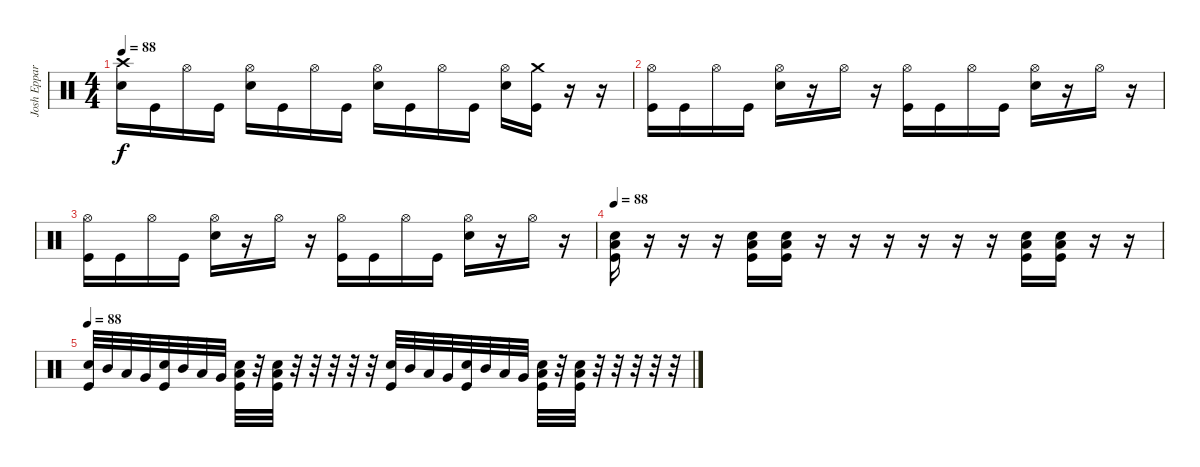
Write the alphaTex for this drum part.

\track ("Josh Eppard (Drums)" "Josh Eppar") {instrument percussion}
\staff {score}
\articulation defaults
\ts (4 4)
\tempo 88
\clef neutral
\ks c
("Crash high (hit)" "Electric Snare (hit)").16{dy f} "Kick (hit)".16 "Hi-Hat (open)".16 "Kick (hit)".16 ("Hi-Hat (open)" "Electric Snare (hit)").16 "Kick (hit)".16 "Hi-Hat (open)".16 "Kick (hit)".16 ("Hi-Hat (open)" "Electric Snare (hit)").16 "Kick (hit)".16 "Hi-Hat (open)".16 "Kick (hit)".16 ("Hi-Hat (open)" "Electric Snare (hit)").16 ("Crash medium (hit)" "Kick (hit)").16 r.16 r.16 |
("Hi-Hat (open)" "Kick (hit)").16 "Kick (hit)".16 "Hi-Hat (open)".16 "Kick (hit)".16 ("Hi-Hat (open)" "Electric Snare (hit)").16 r.16 "Hi-Hat (open)".16 r.16 ("Hi-Hat (open)" "Kick (hit)").16 "Kick (hit)".16 "Hi-Hat (open)".16 "Kick (hit)".16 ("Hi-Hat (open)" "Electric Snare (hit)").16 r.16 "Hi-Hat (open)".16 r.16 |
("Hi-Hat (open)" "Kick (hit)").16 "Kick (hit)".16 "Hi-Hat (open)".16 "Kick (hit)".16 ("Hi-Hat (open)" "Electric Snare (hit)").16 r.16 "Hi-Hat (open)".16 r.16 ("Hi-Hat (open)" "Kick (hit)").16 "Kick (hit)".16 "Hi-Hat (open)".16 "Kick (hit)".16 ("Hi-Hat (open)" "Electric Snare (hit)").16 r.16 "Hi-Hat (open)".16 r.16 |
\tempo 88
("Low Floor Tom (hit)" "Electric Snare (hit)" "Kick (hit)").16 r.16 r.16 r.16 ("Low Floor Tom (hit)" "Electric Snare (hit)" "Kick (hit)").16 ("Low Floor Tom (hit)" "Electric Snare (hit)" "Kick (hit)").16 r.16 r.16 r.16 r.16 r.16 r.16 ("Low Floor Tom (hit)" "Electric Snare (hit)" "Kick (hit)").16 ("Low Floor Tom (hit)" "Electric Snare (hit)" "Kick (hit)").16 r.16 r.16 |
\tempo 88
("Electric Snare (hit)" "Kick (hit)").32 "Mid Tom (hit)".32 "Low Tom (hit)".32 "Very Low Tom (hit)".32 ("Electric Snare (hit)" "Kick (hit)").32 "Mid Tom (hit)".32 "Low Tom (hit)".32 "Very Low Tom (hit)".32 ("Low Floor Tom (hit)" "Electric Snare (hit)" "Kick (hit)").32 r.32 ("Low Floor Tom (hit)" "Electric Snare (hit)" "Kick (hit)").32 r.32 r.32 r.32 r.32 r.32 ("Electric Snare (hit)" "Kick (hit)").32 "Mid Tom (hit)".32 "Low Tom (hit)".32 "Very Low Tom (hit)".32 ("Electric Snare (hit)" "Kick (hit)").32 "Mid Tom (hit)".32 "Low Tom (hit)".32 "Very Low Tom (hit)".32 ("Low Floor Tom (hit)" "Electric Snare (hit)" "Kick (hit)").32 r.32 ("Low Floor Tom (hit)" "Electric Snare (hit)" "Kick (hit)").32 r.32 r.32 r.32 r.32 r.32
